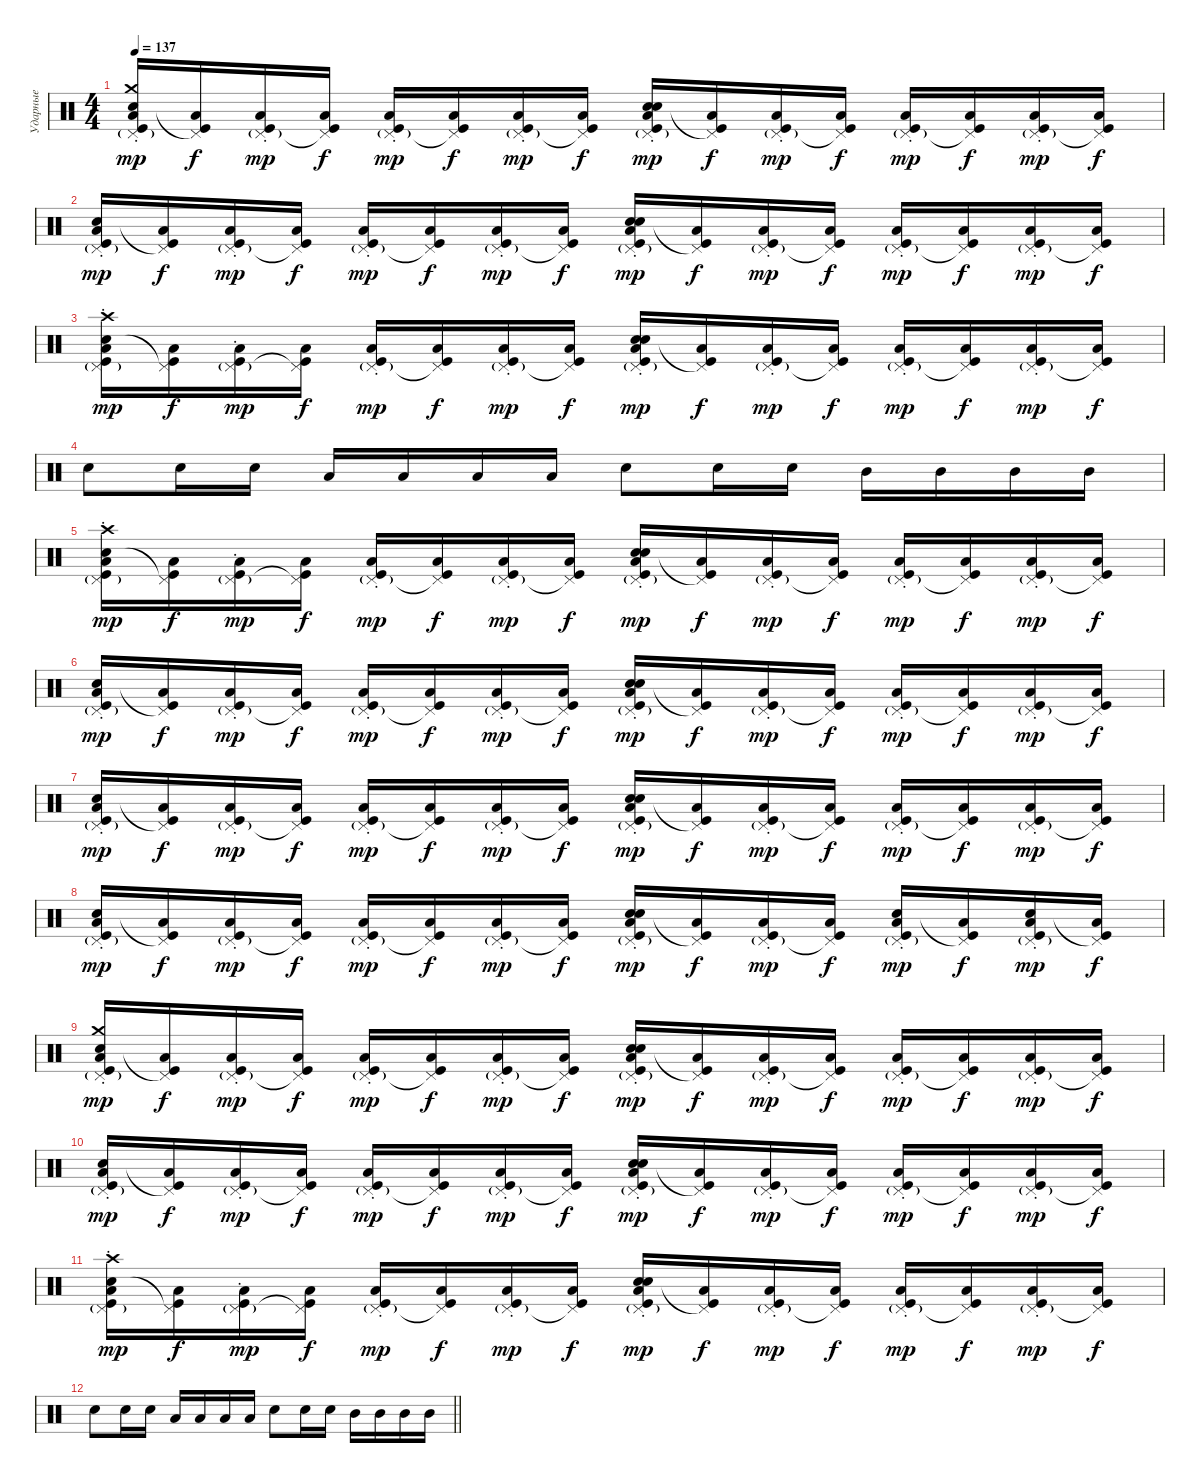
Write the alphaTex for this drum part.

\track ("Ударные" "Ударные") {instrument percussion}
\staff {score}
\articulation defaults
\ts (4 4)
\tempo 137
\clef neutral
\ks c
("Kick (hit)" "Low Tom (hit)" "Electric Snare (hit)" "Crash medium (hit)" "Pedal Hi-Hat (hit)"{g st}).16{dy mp} ("Kick (hit)" "Low Tom (hit)" "Pedal Hi-Hat (hit)"{t}).16{dy f} ("Kick (hit)" "Low Tom (hit)" "Pedal Hi-Hat (hit)"{g st}).16{dy mp} ("Kick (hit)" "Low Tom (hit)" "Pedal Hi-Hat (hit)"{t}).16{dy f} ("Kick (hit)" "Low Tom (hit)" "Pedal Hi-Hat (hit)"{g st}).16{dy mp} ("Kick (hit)" "Low Tom (hit)" "Pedal Hi-Hat (hit)"{t}).16{dy f} ("Kick (hit)" "Low Tom (hit)" "Pedal Hi-Hat (hit)"{g st}).16{dy mp} ("Kick (hit)" "Low Tom (hit)" "Pedal Hi-Hat (hit)"{t}).16{dy f} ("Kick (hit)" "Low Tom (hit)" "Electric Snare (hit)" "Snare (hit) 2" "Pedal Hi-Hat (hit)"{g st}).16{dy mp} ("Kick (hit)" "Low Tom (hit)" "Pedal Hi-Hat (hit)"{t}).16{dy f} ("Kick (hit)" "Low Tom (hit)" "Pedal Hi-Hat (hit)"{g st}).16{dy mp} ("Kick (hit)" "Low Tom (hit)" "Pedal Hi-Hat (hit)"{t}).16{dy f} ("Kick (hit)" "Low Tom (hit)" "Pedal Hi-Hat (hit)"{g st}).16{dy mp} ("Kick (hit)" "Low Tom (hit)" "Pedal Hi-Hat (hit)"{t}).16{dy f} ("Kick (hit)" "Low Tom (hit)" "Pedal Hi-Hat (hit)"{g st}).16{dy mp} ("Kick (hit)" "Low Tom (hit)" "Pedal Hi-Hat (hit)"{t}).16{dy f} |
("Kick (hit)" "Low Tom (hit)" "Electric Snare (hit)" "Pedal Hi-Hat (hit)"{g st}).16{dy mp} ("Kick (hit)" "Low Tom (hit)" "Pedal Hi-Hat (hit)"{t}).16{dy f} ("Kick (hit)" "Low Tom (hit)" "Pedal Hi-Hat (hit)"{g st}).16{dy mp} ("Kick (hit)" "Low Tom (hit)" "Pedal Hi-Hat (hit)"{t}).16{dy f} ("Kick (hit)" "Low Tom (hit)" "Pedal Hi-Hat (hit)"{g st}).16{dy mp} ("Kick (hit)" "Low Tom (hit)" "Pedal Hi-Hat (hit)"{t}).16{dy f} ("Kick (hit)" "Low Tom (hit)" "Pedal Hi-Hat (hit)"{g st}).16{dy mp} ("Kick (hit)" "Low Tom (hit)" "Pedal Hi-Hat (hit)"{t}).16{dy f} ("Kick (hit)" "Low Tom (hit)" "Electric Snare (hit)" "Snare (hit) 2" "Pedal Hi-Hat (hit)"{g st}).16{dy mp} ("Kick (hit)" "Low Tom (hit)" "Pedal Hi-Hat (hit)"{t}).16{dy f} ("Kick (hit)" "Low Tom (hit)" "Pedal Hi-Hat (hit)"{g st}).16{dy mp} ("Kick (hit)" "Low Tom (hit)" "Pedal Hi-Hat (hit)"{t}).16{dy f} ("Kick (hit)" "Low Tom (hit)" "Pedal Hi-Hat (hit)"{g st}).16{dy mp} ("Kick (hit)" "Low Tom (hit)" "Pedal Hi-Hat (hit)"{t}).16{dy f} ("Kick (hit)" "Low Tom (hit)" "Pedal Hi-Hat (hit)"{g st}).16{dy mp} ("Kick (hit)" "Low Tom (hit)" "Pedal Hi-Hat (hit)"{t}).16{dy f} |
("Kick (hit)" "Low Tom (hit)" "Electric Snare (hit)" "Crash high (hit)" "Pedal Hi-Hat (hit)"{g st}).16{dy mp} ("Kick (hit)" "Low Tom (hit)" "Pedal Hi-Hat (hit)"{t}).16{dy f} ("Kick (hit)" "Low Tom (hit)" "Pedal Hi-Hat (hit)"{g st}).16{dy mp} ("Kick (hit)" "Low Tom (hit)" "Pedal Hi-Hat (hit)"{t}).16{dy f} ("Kick (hit)" "Low Tom (hit)" "Pedal Hi-Hat (hit)"{g st}).16{dy mp} ("Kick (hit)" "Low Tom (hit)" "Pedal Hi-Hat (hit)"{t}).16{dy f} ("Kick (hit)" "Low Tom (hit)" "Pedal Hi-Hat (hit)"{g st}).16{dy mp} ("Kick (hit)" "Low Tom (hit)" "Pedal Hi-Hat (hit)"{t}).16{dy f} ("Kick (hit)" "Low Tom (hit)" "Electric Snare (hit)" "Snare (hit) 2" "Pedal Hi-Hat (hit)"{g st}).16{dy mp} ("Kick (hit)" "Low Tom (hit)" "Pedal Hi-Hat (hit)"{t}).16{dy f} ("Kick (hit)" "Low Tom (hit)" "Pedal Hi-Hat (hit)"{g st}).16{dy mp} ("Kick (hit)" "Low Tom (hit)" "Pedal Hi-Hat (hit)"{t}).16{dy f} ("Kick (hit)" "Low Tom (hit)" "Pedal Hi-Hat (hit)"{g st}).16{dy mp} ("Kick (hit)" "Low Tom (hit)" "Pedal Hi-Hat (hit)"{t}).16{dy f} ("Kick (hit)" "Low Tom (hit)" "Pedal Hi-Hat (hit)"{g st}).16{dy mp} ("Kick (hit)" "Low Tom (hit)" "Pedal Hi-Hat (hit)"{t}).16{dy f} |
"Electric Snare (hit)".8 "Electric Snare (hit)".16 "Electric Snare (hit)".16 "Low Tom (hit)".16 "Low Tom (hit)".16 "Low Tom (hit)".16 "Low Tom (hit)".16 "Electric Snare (hit)".8 "Electric Snare (hit)".16 "Electric Snare (hit)".16 "Mid Tom (hit)".16 "Mid Tom (hit)".16 "Mid Tom (hit)".16 "Mid Tom (hit)".16 |
("Kick (hit)" "Low Tom (hit)" "Electric Snare (hit)" "Crash high (hit)" "Pedal Hi-Hat (hit)"{g st}).16{dy mp} ("Kick (hit)" "Low Tom (hit)" "Pedal Hi-Hat (hit)"{t}).16{dy f} ("Kick (hit)" "Low Tom (hit)" "Pedal Hi-Hat (hit)"{g st}).16{dy mp} ("Kick (hit)" "Low Tom (hit)" "Pedal Hi-Hat (hit)"{t}).16{dy f} ("Kick (hit)" "Low Tom (hit)" "Pedal Hi-Hat (hit)"{g st}).16{dy mp} ("Kick (hit)" "Low Tom (hit)" "Pedal Hi-Hat (hit)"{t}).16{dy f} ("Kick (hit)" "Low Tom (hit)" "Pedal Hi-Hat (hit)"{g st}).16{dy mp} ("Kick (hit)" "Low Tom (hit)" "Pedal Hi-Hat (hit)"{t}).16{dy f} ("Kick (hit)" "Low Tom (hit)" "Electric Snare (hit)" "Snare (hit) 2" "Pedal Hi-Hat (hit)"{g st}).16{dy mp} ("Kick (hit)" "Low Tom (hit)" "Pedal Hi-Hat (hit)"{t}).16{dy f} ("Kick (hit)" "Low Tom (hit)" "Pedal Hi-Hat (hit)"{g st}).16{dy mp} ("Kick (hit)" "Low Tom (hit)" "Pedal Hi-Hat (hit)"{t}).16{dy f} ("Kick (hit)" "Low Tom (hit)" "Pedal Hi-Hat (hit)"{g st}).16{dy mp} ("Kick (hit)" "Low Tom (hit)" "Pedal Hi-Hat (hit)"{t}).16{dy f} ("Kick (hit)" "Low Tom (hit)" "Pedal Hi-Hat (hit)"{g st}).16{dy mp} ("Kick (hit)" "Low Tom (hit)" "Pedal Hi-Hat (hit)"{t}).16{dy f} |
("Kick (hit)" "Low Tom (hit)" "Electric Snare (hit)" "Pedal Hi-Hat (hit)"{g st}).16{dy mp} ("Kick (hit)" "Low Tom (hit)" "Pedal Hi-Hat (hit)"{t}).16{dy f} ("Kick (hit)" "Low Tom (hit)" "Pedal Hi-Hat (hit)"{g st}).16{dy mp} ("Kick (hit)" "Low Tom (hit)" "Pedal Hi-Hat (hit)"{t}).16{dy f} ("Kick (hit)" "Low Tom (hit)" "Pedal Hi-Hat (hit)"{g st}).16{dy mp} ("Kick (hit)" "Low Tom (hit)" "Pedal Hi-Hat (hit)"{t}).16{dy f} ("Kick (hit)" "Low Tom (hit)" "Pedal Hi-Hat (hit)"{g st}).16{dy mp} ("Kick (hit)" "Low Tom (hit)" "Pedal Hi-Hat (hit)"{t}).16{dy f} ("Kick (hit)" "Low Tom (hit)" "Electric Snare (hit)" "Snare (hit) 2" "Pedal Hi-Hat (hit)"{g st}).16{dy mp} ("Kick (hit)" "Low Tom (hit)" "Pedal Hi-Hat (hit)"{t}).16{dy f} ("Kick (hit)" "Low Tom (hit)" "Pedal Hi-Hat (hit)"{g st}).16{dy mp} ("Kick (hit)" "Low Tom (hit)" "Pedal Hi-Hat (hit)"{t}).16{dy f} ("Kick (hit)" "Low Tom (hit)" "Pedal Hi-Hat (hit)"{g st}).16{dy mp} ("Kick (hit)" "Low Tom (hit)" "Pedal Hi-Hat (hit)"{t}).16{dy f} ("Kick (hit)" "Low Tom (hit)" "Pedal Hi-Hat (hit)"{g st}).16{dy mp} ("Kick (hit)" "Low Tom (hit)" "Pedal Hi-Hat (hit)"{t}).16{dy f} |
("Kick (hit)" "Low Tom (hit)" "Electric Snare (hit)" "Pedal Hi-Hat (hit)"{g st}).16{dy mp} ("Kick (hit)" "Low Tom (hit)" "Pedal Hi-Hat (hit)"{t}).16{dy f} ("Kick (hit)" "Low Tom (hit)" "Pedal Hi-Hat (hit)"{g st}).16{dy mp} ("Kick (hit)" "Low Tom (hit)" "Pedal Hi-Hat (hit)"{t}).16{dy f} ("Kick (hit)" "Low Tom (hit)" "Pedal Hi-Hat (hit)"{g st}).16{dy mp} ("Kick (hit)" "Low Tom (hit)" "Pedal Hi-Hat (hit)"{t}).16{dy f} ("Kick (hit)" "Low Tom (hit)" "Pedal Hi-Hat (hit)"{g st}).16{dy mp} ("Kick (hit)" "Low Tom (hit)" "Pedal Hi-Hat (hit)"{t}).16{dy f} ("Kick (hit)" "Low Tom (hit)" "Electric Snare (hit)" "Snare (hit) 2" "Pedal Hi-Hat (hit)"{g st}).16{dy mp} ("Kick (hit)" "Low Tom (hit)" "Pedal Hi-Hat (hit)"{t}).16{dy f} ("Kick (hit)" "Low Tom (hit)" "Pedal Hi-Hat (hit)"{g st}).16{dy mp} ("Kick (hit)" "Low Tom (hit)" "Pedal Hi-Hat (hit)"{t}).16{dy f} ("Kick (hit)" "Low Tom (hit)" "Pedal Hi-Hat (hit)"{g st}).16{dy mp} ("Kick (hit)" "Low Tom (hit)" "Pedal Hi-Hat (hit)"{t}).16{dy f} ("Kick (hit)" "Low Tom (hit)" "Pedal Hi-Hat (hit)"{g st}).16{dy mp} ("Kick (hit)" "Low Tom (hit)" "Pedal Hi-Hat (hit)"{t}).16{dy f} |
("Kick (hit)" "Low Tom (hit)" "Electric Snare (hit)" "Pedal Hi-Hat (hit)"{g st}).16{dy mp} ("Kick (hit)" "Low Tom (hit)" "Pedal Hi-Hat (hit)"{t}).16{dy f} ("Kick (hit)" "Low Tom (hit)" "Pedal Hi-Hat (hit)"{g st}).16{dy mp} ("Kick (hit)" "Low Tom (hit)" "Pedal Hi-Hat (hit)"{t}).16{dy f} ("Kick (hit)" "Low Tom (hit)" "Pedal Hi-Hat (hit)"{g st}).16{dy mp} ("Kick (hit)" "Low Tom (hit)" "Pedal Hi-Hat (hit)"{t}).16{dy f} ("Kick (hit)" "Low Tom (hit)" "Pedal Hi-Hat (hit)"{g st}).16{dy mp} ("Kick (hit)" "Low Tom (hit)" "Pedal Hi-Hat (hit)"{t}).16{dy f} ("Kick (hit)" "Low Tom (hit)" "Electric Snare (hit)" "Snare (hit) 2" "Pedal Hi-Hat (hit)"{g st}).16{dy mp} ("Kick (hit)" "Low Tom (hit)" "Pedal Hi-Hat (hit)"{t}).16{dy f} ("Kick (hit)" "Low Tom (hit)" "Pedal Hi-Hat (hit)"{g st}).16{dy mp} ("Kick (hit)" "Low Tom (hit)" "Pedal Hi-Hat (hit)"{t}).16{dy f} ("Kick (hit)" "Low Tom (hit)" "Electric Snare (hit)" "Pedal Hi-Hat (hit)"{g st}).16{dy mp} ("Kick (hit)" "Low Tom (hit)" "Pedal Hi-Hat (hit)"{t}).16{dy f} ("Kick (hit)" "Low Tom (hit)" "Electric Snare (hit)" "Pedal Hi-Hat (hit)"{g st}).16{dy mp} ("Kick (hit)" "Low Tom (hit)" "Pedal Hi-Hat (hit)"{t}).16{dy f} |
("Kick (hit)" "Low Tom (hit)" "Electric Snare (hit)" "Crash medium (hit)" "Pedal Hi-Hat (hit)"{g st}).16{dy mp} ("Kick (hit)" "Low Tom (hit)" "Pedal Hi-Hat (hit)"{t}).16{dy f} ("Kick (hit)" "Low Tom (hit)" "Pedal Hi-Hat (hit)"{g st}).16{dy mp} ("Kick (hit)" "Low Tom (hit)" "Pedal Hi-Hat (hit)"{t}).16{dy f} ("Kick (hit)" "Low Tom (hit)" "Pedal Hi-Hat (hit)"{g st}).16{dy mp} ("Kick (hit)" "Low Tom (hit)" "Pedal Hi-Hat (hit)"{t}).16{dy f} ("Kick (hit)" "Low Tom (hit)" "Pedal Hi-Hat (hit)"{g st}).16{dy mp} ("Kick (hit)" "Low Tom (hit)" "Pedal Hi-Hat (hit)"{t}).16{dy f} ("Kick (hit)" "Low Tom (hit)" "Electric Snare (hit)" "Snare (hit) 2" "Pedal Hi-Hat (hit)"{g st}).16{dy mp} ("Kick (hit)" "Low Tom (hit)" "Pedal Hi-Hat (hit)"{t}).16{dy f} ("Kick (hit)" "Low Tom (hit)" "Pedal Hi-Hat (hit)"{g st}).16{dy mp} ("Kick (hit)" "Low Tom (hit)" "Pedal Hi-Hat (hit)"{t}).16{dy f} ("Kick (hit)" "Low Tom (hit)" "Pedal Hi-Hat (hit)"{g st}).16{dy mp} ("Kick (hit)" "Low Tom (hit)" "Pedal Hi-Hat (hit)"{t}).16{dy f} ("Kick (hit)" "Low Tom (hit)" "Pedal Hi-Hat (hit)"{g st}).16{dy mp} ("Kick (hit)" "Low Tom (hit)" "Pedal Hi-Hat (hit)"{t}).16{dy f} |
("Kick (hit)" "Low Tom (hit)" "Electric Snare (hit)" "Pedal Hi-Hat (hit)"{g st}).16{dy mp} ("Kick (hit)" "Low Tom (hit)" "Pedal Hi-Hat (hit)"{t}).16{dy f} ("Kick (hit)" "Low Tom (hit)" "Pedal Hi-Hat (hit)"{g st}).16{dy mp} ("Kick (hit)" "Low Tom (hit)" "Pedal Hi-Hat (hit)"{t}).16{dy f} ("Kick (hit)" "Low Tom (hit)" "Pedal Hi-Hat (hit)"{g st}).16{dy mp} ("Kick (hit)" "Low Tom (hit)" "Pedal Hi-Hat (hit)"{t}).16{dy f} ("Kick (hit)" "Low Tom (hit)" "Pedal Hi-Hat (hit)"{g st}).16{dy mp} ("Kick (hit)" "Low Tom (hit)" "Pedal Hi-Hat (hit)"{t}).16{dy f} ("Kick (hit)" "Low Tom (hit)" "Electric Snare (hit)" "Snare (hit) 2" "Pedal Hi-Hat (hit)"{g st}).16{dy mp} ("Kick (hit)" "Low Tom (hit)" "Pedal Hi-Hat (hit)"{t}).16{dy f} ("Kick (hit)" "Low Tom (hit)" "Pedal Hi-Hat (hit)"{g st}).16{dy mp} ("Kick (hit)" "Low Tom (hit)" "Pedal Hi-Hat (hit)"{t}).16{dy f} ("Kick (hit)" "Low Tom (hit)" "Pedal Hi-Hat (hit)"{g st}).16{dy mp} ("Kick (hit)" "Low Tom (hit)" "Pedal Hi-Hat (hit)"{t}).16{dy f} ("Kick (hit)" "Low Tom (hit)" "Pedal Hi-Hat (hit)"{g st}).16{dy mp} ("Kick (hit)" "Low Tom (hit)" "Pedal Hi-Hat (hit)"{t}).16{dy f} |
("Kick (hit)" "Low Tom (hit)" "Electric Snare (hit)" "Crash high (hit)" "Pedal Hi-Hat (hit)"{g st}).16{dy mp} ("Kick (hit)" "Low Tom (hit)" "Pedal Hi-Hat (hit)"{t}).16{dy f} ("Kick (hit)" "Low Tom (hit)" "Pedal Hi-Hat (hit)"{g st}).16{dy mp} ("Kick (hit)" "Low Tom (hit)" "Pedal Hi-Hat (hit)"{t}).16{dy f} ("Kick (hit)" "Low Tom (hit)" "Pedal Hi-Hat (hit)"{g st}).16{dy mp} ("Kick (hit)" "Low Tom (hit)" "Pedal Hi-Hat (hit)"{t}).16{dy f} ("Kick (hit)" "Low Tom (hit)" "Pedal Hi-Hat (hit)"{g st}).16{dy mp} ("Kick (hit)" "Low Tom (hit)" "Pedal Hi-Hat (hit)"{t}).16{dy f} ("Kick (hit)" "Low Tom (hit)" "Electric Snare (hit)" "Snare (hit) 2" "Pedal Hi-Hat (hit)"{g st}).16{dy mp} ("Kick (hit)" "Low Tom (hit)" "Pedal Hi-Hat (hit)"{t}).16{dy f} ("Kick (hit)" "Low Tom (hit)" "Pedal Hi-Hat (hit)"{g st}).16{dy mp} ("Kick (hit)" "Low Tom (hit)" "Pedal Hi-Hat (hit)"{t}).16{dy f} ("Kick (hit)" "Low Tom (hit)" "Pedal Hi-Hat (hit)"{g st}).16{dy mp} ("Kick (hit)" "Low Tom (hit)" "Pedal Hi-Hat (hit)"{t}).16{dy f} ("Kick (hit)" "Low Tom (hit)" "Pedal Hi-Hat (hit)"{g st}).16{dy mp} ("Kick (hit)" "Low Tom (hit)" "Pedal Hi-Hat (hit)"{t}).16{dy f} |
\barLineRight lightlight "Electric Snare (hit)".8 "Electric Snare (hit)".16 "Electric Snare (hit)".16 "Low Tom (hit)".16 "Low Tom (hit)".16 "Low Tom (hit)".16 "Low Tom (hit)".16 "Electric Snare (hit)".8 "Electric Snare (hit)".16 "Electric Snare (hit)".16 "Mid Tom (hit)".16 "Mid Tom (hit)".16 "Mid Tom (hit)".16 "Mid Tom (hit)".16
